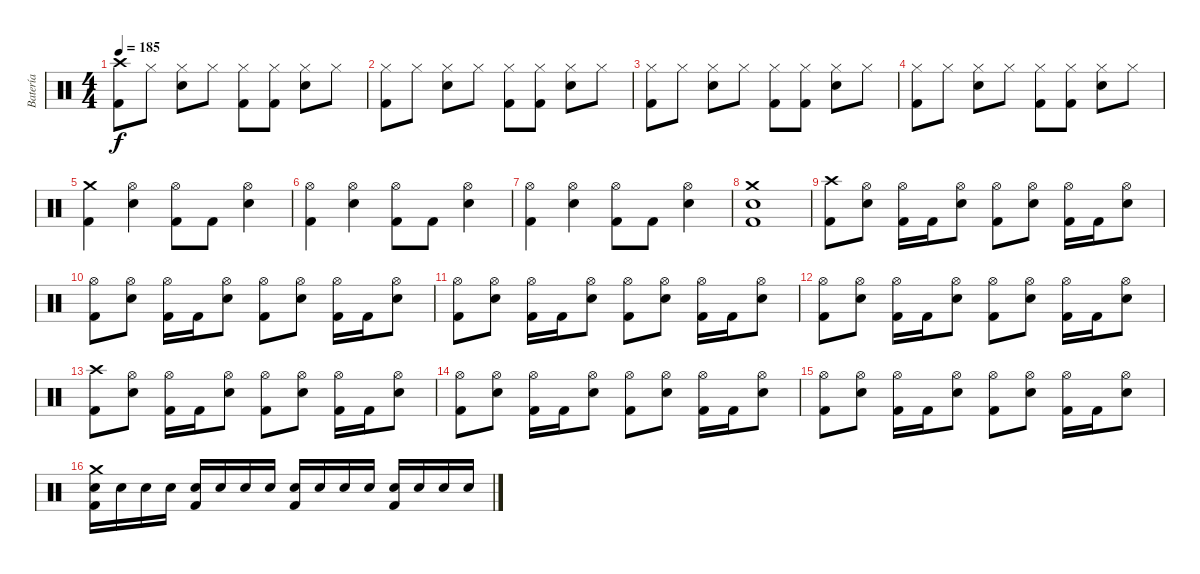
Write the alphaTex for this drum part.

\track ("Batería" "Batería") {instrument percussion}
\staff {score}
\articulation defaults
\ts (4 4)
\tempo 185
\clef neutral
\ks c
("Crash high (hit)" "Kick (hit) 2").8{dy f} "Hi-Hat (closed)".8 ("Hi-Hat (closed)" "Electric Snare (hit)").8 "Hi-Hat (closed)".8 ("Hi-Hat (closed)" "Kick (hit) 2").8 ("Hi-Hat (closed)" "Kick (hit) 2").8 ("Hi-Hat (closed)" "Electric Snare (hit)").8 "Hi-Hat (closed)".8 |
("Hi-Hat (closed)" "Kick (hit) 2").8 "Hi-Hat (closed)".8 ("Hi-Hat (closed)" "Electric Snare (hit)").8 "Hi-Hat (closed)".8 ("Hi-Hat (closed)" "Kick (hit) 2").8 ("Hi-Hat (closed)" "Kick (hit) 2").8 ("Hi-Hat (closed)" "Electric Snare (hit)").8 "Hi-Hat (closed)".8 |
("Hi-Hat (closed)" "Kick (hit) 2").8 "Hi-Hat (closed)".8 ("Hi-Hat (closed)" "Electric Snare (hit)").8 "Hi-Hat (closed)".8 ("Hi-Hat (closed)" "Kick (hit) 2").8 ("Hi-Hat (closed)" "Kick (hit) 2").8 ("Hi-Hat (closed)" "Electric Snare (hit)").8 "Hi-Hat (closed)".8 |
("Hi-Hat (closed)" "Kick (hit) 2").8 "Hi-Hat (closed)".8 ("Hi-Hat (closed)" "Electric Snare (hit)").8 "Hi-Hat (closed)".8 ("Hi-Hat (closed)" "Kick (hit) 2").8 ("Hi-Hat (closed)" "Kick (hit) 2").8 ("Hi-Hat (closed)" "Electric Snare (hit)").8 "Hi-Hat (closed)".8 |
("Crash medium (hit)" "Kick (hit) 2").4 ("Hi-Hat (open)" "Electric Snare (hit)").4 ("Hi-Hat (open)" "Kick (hit) 2").8 "Kick (hit) 2".8 ("Hi-Hat (open)" "Electric Snare (hit)").4 |
("Hi-Hat (open)" "Kick (hit) 2").4 ("Hi-Hat (open)" "Electric Snare (hit)").4 ("Hi-Hat (open)" "Kick (hit) 2").8 "Kick (hit) 2".8 ("Hi-Hat (open)" "Electric Snare (hit)").4 |
("Hi-Hat (open)" "Kick (hit) 2").4 ("Hi-Hat (open)" "Electric Snare (hit)").4 ("Hi-Hat (open)" "Kick (hit) 2").8 "Kick (hit) 2".8 ("Hi-Hat (open)" "Electric Snare (hit)").4 |
("Crash medium (hit)" "Electric Snare (hit)" "Kick (hit) 2").1 |
("Crash high (hit)" "Kick (hit) 2").8 ("Hi-Hat (open)" "Electric Snare (hit)").8 ("Hi-Hat (open)" "Kick (hit) 2").16 "Kick (hit) 2".16 ("Hi-Hat (open)" "Electric Snare (hit)").8 ("Hi-Hat (open)" "Kick (hit) 2").8 ("Hi-Hat (open)" "Electric Snare (hit)").8 ("Hi-Hat (open)" "Kick (hit) 2").16 "Kick (hit) 2".16 ("Hi-Hat (open)" "Electric Snare (hit)").8 |
("Hi-Hat (open)" "Kick (hit) 2").8 ("Hi-Hat (open)" "Electric Snare (hit)").8 ("Hi-Hat (open)" "Kick (hit) 2").16 "Kick (hit) 2".16 ("Hi-Hat (open)" "Electric Snare (hit)").8 ("Hi-Hat (open)" "Kick (hit) 2").8 ("Hi-Hat (open)" "Electric Snare (hit)").8 ("Hi-Hat (open)" "Kick (hit) 2").16 "Kick (hit) 2".16 ("Hi-Hat (open)" "Electric Snare (hit)").8 |
("Hi-Hat (open)" "Kick (hit) 2").8 ("Hi-Hat (open)" "Electric Snare (hit)").8 ("Hi-Hat (open)" "Kick (hit) 2").16 "Kick (hit) 2".16 ("Hi-Hat (open)" "Electric Snare (hit)").8 ("Hi-Hat (open)" "Kick (hit) 2").8 ("Hi-Hat (open)" "Electric Snare (hit)").8 ("Hi-Hat (open)" "Kick (hit) 2").16 "Kick (hit) 2".16 ("Hi-Hat (open)" "Electric Snare (hit)").8 |
("Hi-Hat (open)" "Kick (hit) 2").8 ("Hi-Hat (open)" "Electric Snare (hit)").8 ("Hi-Hat (open)" "Kick (hit) 2").16 "Kick (hit) 2".16 ("Hi-Hat (open)" "Electric Snare (hit)").8 ("Hi-Hat (open)" "Kick (hit) 2").8 ("Hi-Hat (open)" "Electric Snare (hit)").8 ("Hi-Hat (open)" "Kick (hit) 2").16 "Kick (hit) 2".16 ("Hi-Hat (open)" "Electric Snare (hit)").8 |
("Crash high (hit)" "Kick (hit) 2").8 ("Hi-Hat (open)" "Electric Snare (hit)").8 ("Hi-Hat (open)" "Kick (hit) 2").16 "Kick (hit) 2".16 ("Hi-Hat (open)" "Electric Snare (hit)").8 ("Hi-Hat (open)" "Kick (hit) 2").8 ("Hi-Hat (open)" "Electric Snare (hit)").8 ("Hi-Hat (open)" "Kick (hit) 2").16 "Kick (hit) 2".16 ("Hi-Hat (open)" "Electric Snare (hit)").8 |
("Hi-Hat (open)" "Kick (hit) 2").8 ("Hi-Hat (open)" "Electric Snare (hit)").8 ("Hi-Hat (open)" "Kick (hit) 2").16 "Kick (hit) 2".16 ("Hi-Hat (open)" "Electric Snare (hit)").8 ("Hi-Hat (open)" "Kick (hit) 2").8 ("Hi-Hat (open)" "Electric Snare (hit)").8 ("Hi-Hat (open)" "Kick (hit) 2").16 "Kick (hit) 2".16 ("Hi-Hat (open)" "Electric Snare (hit)").8 |
("Hi-Hat (open)" "Kick (hit) 2").8 ("Hi-Hat (open)" "Electric Snare (hit)").8 ("Hi-Hat (open)" "Kick (hit) 2").16 "Kick (hit) 2".16 ("Hi-Hat (open)" "Electric Snare (hit)").8 ("Hi-Hat (open)" "Kick (hit) 2").8 ("Hi-Hat (open)" "Electric Snare (hit)").8 ("Hi-Hat (open)" "Kick (hit) 2").16 "Kick (hit) 2".16 ("Hi-Hat (open)" "Electric Snare (hit)").8 |
("Crash medium (hit)" "Electric Snare (hit)" "Kick (hit) 2").16 "Electric Snare (hit)".16 "Electric Snare (hit)".16 "Electric Snare (hit)".16 ("Electric Snare (hit)" "Kick (hit) 2").16 "Electric Snare (hit)".16 "Electric Snare (hit)".16 "Electric Snare (hit)".16 ("Electric Snare (hit)" "Kick (hit) 2").16 "Electric Snare (hit)".16 "Electric Snare (hit)".16 "Electric Snare (hit)".16 ("Electric Snare (hit)" "Kick (hit) 2").16 "Electric Snare (hit)".16 "Electric Snare (hit)".16 "Electric Snare (hit)".16
